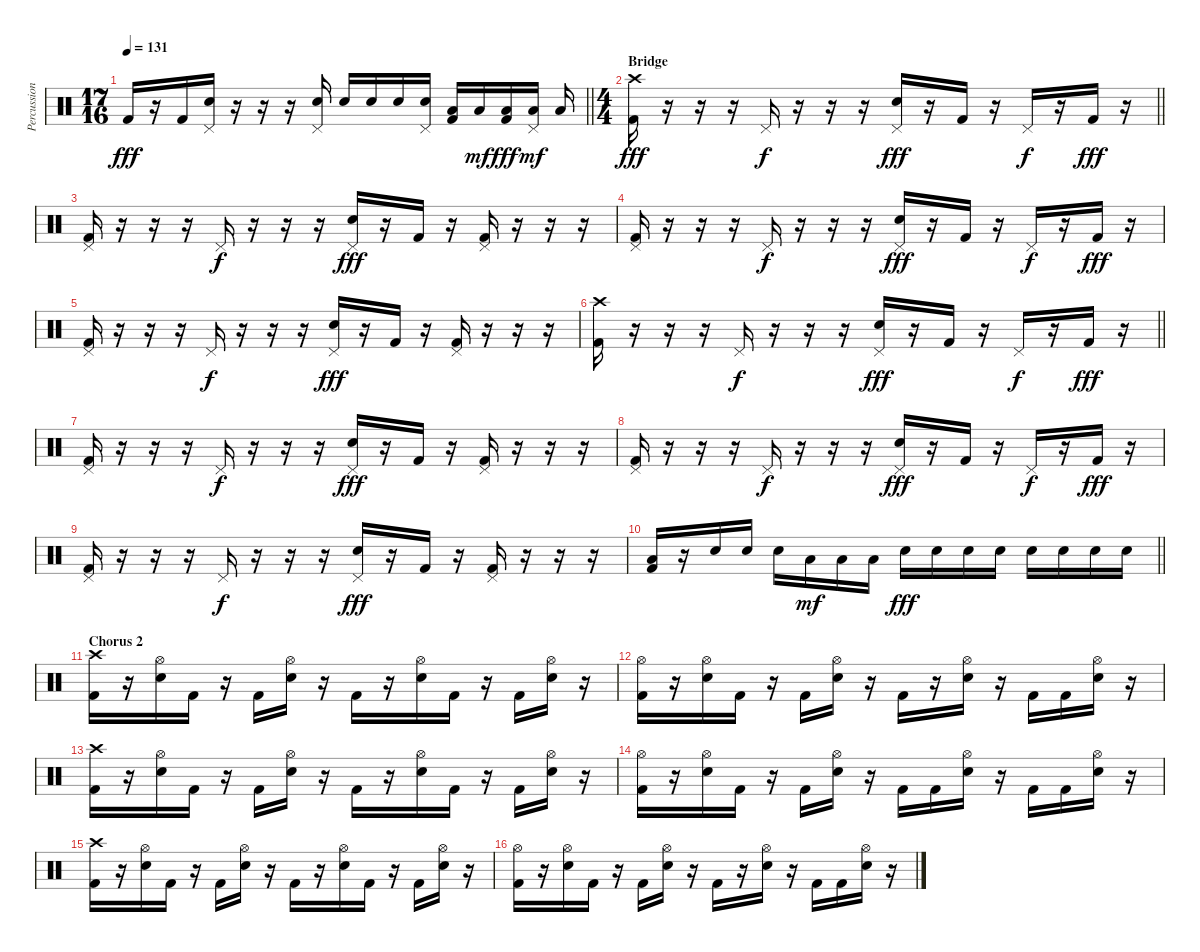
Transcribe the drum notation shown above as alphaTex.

\track ("Percussion" "Percussion") {instrument percussion}
\staff {score}
\articulation defaults
\ts (17 16)
\tempo 131
\clef neutral
\barLineRight lightlight
\ks c "Kick (hit) 2".16{dy fff}
r.16 "Kick (hit) 2".16 ("Pedal Hi-Hat (hit)" "Snare (hit) 2").16 r.16 r.16 r.16 ("Pedal Hi-Hat (hit)" "Snare (hit) 2").16 "Snare (hit) 2".16 "Snare (hit) 2".16 "Snare (hit) 2".16 ("Pedal Hi-Hat (hit)" "Snare (hit) 2").16 ("Low Tom (hit)" "Kick (hit) 2").16 "Low Tom (hit)".16{dy mf} ("Low Tom (hit)" "Kick (hit) 2").16{dy fff} ("Pedal Hi-Hat (hit)" "Low Tom (hit)").16{dy mf} "Low Tom (hit)".16 |
\ts (4 4)
\section ("" "Bridge")
\barLineRight lightlight
("Crash high (hit)" "Kick (hit) 2").16{dy fff} r.16 r.16 r.16 "Pedal Hi-Hat (hit)".16{dy f} r.16 r.16 r.16 ("Pedal Hi-Hat (hit)" "Snare (hit) 2").16{dy fff} r.16 "Kick (hit) 2".16 r.16 "Pedal Hi-Hat (hit)".16{dy f} r.16 "Kick (hit) 2".16{dy fff} r.16 |
("Pedal Hi-Hat (hit)" "Kick (hit) 2").16 r.16 r.16 r.16 "Pedal Hi-Hat (hit)".16{dy f} r.16 r.16 r.16 ("Pedal Hi-Hat (hit)" "Snare (hit) 2").16{dy fff} r.16 "Kick (hit) 2".16 r.16 ("Pedal Hi-Hat (hit)" "Kick (hit) 2").16 r.16 r.16 r.16 |
("Pedal Hi-Hat (hit)" "Kick (hit) 2").16 r.16 r.16 r.16 "Pedal Hi-Hat (hit)".16{dy f} r.16 r.16 r.16 ("Pedal Hi-Hat (hit)" "Snare (hit) 2").16{dy fff} r.16 "Kick (hit) 2".16 r.16 "Pedal Hi-Hat (hit)".16{dy f} r.16 "Kick (hit) 2".16{dy fff} r.16 |
("Pedal Hi-Hat (hit)" "Kick (hit) 2").16 r.16 r.16 r.16 "Pedal Hi-Hat (hit)".16{dy f} r.16 r.16 r.16 ("Pedal Hi-Hat (hit)" "Snare (hit) 2").16{dy fff} r.16 "Kick (hit) 2".16 r.16 ("Pedal Hi-Hat (hit)" "Kick (hit) 2").16 r.16 r.16 r.16 |
\barLineRight lightlight
("Crash high (hit)" "Kick (hit) 2").16 r.16 r.16 r.16 "Pedal Hi-Hat (hit)".16{dy f} r.16 r.16 r.16 ("Pedal Hi-Hat (hit)" "Snare (hit) 2").16{dy fff} r.16 "Kick (hit) 2".16 r.16 "Pedal Hi-Hat (hit)".16{dy f} r.16 "Kick (hit) 2".16{dy fff} r.16 |
("Pedal Hi-Hat (hit)" "Kick (hit) 2").16 r.16 r.16 r.16 "Pedal Hi-Hat (hit)".16{dy f} r.16 r.16 r.16 ("Pedal Hi-Hat (hit)" "Snare (hit) 2").16{dy fff} r.16 "Kick (hit) 2".16 r.16 ("Pedal Hi-Hat (hit)" "Kick (hit) 2").16 r.16 r.16 r.16 |
("Pedal Hi-Hat (hit)" "Kick (hit) 2").16 r.16 r.16 r.16 "Pedal Hi-Hat (hit)".16{dy f} r.16 r.16 r.16 ("Pedal Hi-Hat (hit)" "Snare (hit) 2").16{dy fff} r.16 "Kick (hit) 2".16 r.16 "Pedal Hi-Hat (hit)".16{dy f} r.16 "Kick (hit) 2".16{dy fff} r.16 |
("Pedal Hi-Hat (hit)" "Kick (hit) 2").16 r.16 r.16 r.16 "Pedal Hi-Hat (hit)".16{dy f} r.16 r.16 r.16 ("Pedal Hi-Hat (hit)" "Snare (hit) 2").16{dy fff} r.16 "Kick (hit) 2".16 r.16 ("Pedal Hi-Hat (hit)" "Kick (hit) 2").16 r.16 r.16 r.16 |
\barLineRight lightlight
("Low Tom (hit)" "Kick (hit) 2").16 r.16 "Snare (hit) 2".16 "Snare (hit) 2".16 "Snare (hit) 2".16 "Low Tom (hit)".16{dy mf} "Low Tom (hit)".16 "Low Tom (hit)".16 "Snare (hit) 2".16{dy fff} "Snare (hit) 2".16 "Snare (hit) 2".16 "Snare (hit) 2".16 "Snare (hit) 2".16 "Snare (hit) 2".16 "Snare (hit) 2".16 "Snare (hit) 2".16 |
\section ("" "Chorus 2")
("Crash high (hit)" "Kick (hit) 2").16 r.16 ("Hi-Hat (open)" "Snare (hit) 2").16 "Kick (hit) 2".16 r.16 "Kick (hit) 2".16 ("Hi-Hat (open)" "Snare (hit) 2").16 r.16 "Kick (hit) 2".16 r.16 ("Hi-Hat (open)" "Snare (hit) 2").16 "Kick (hit) 2".16 r.16 "Kick (hit) 2".16 ("Hi-Hat (open)" "Snare (hit) 2").16 r.16 |
("Hi-Hat (open)" "Kick (hit) 2").16 r.16 ("Hi-Hat (open)" "Snare (hit) 2").16 "Kick (hit) 2".16 r.16 "Kick (hit) 2".16 ("Hi-Hat (open)" "Snare (hit) 2").16 r.16 "Kick (hit) 2".16 r.16 ("Hi-Hat (open)" "Snare (hit) 2").16 r.16 "Kick (hit) 2".16 "Kick (hit) 2".16 ("Hi-Hat (open)" "Snare (hit) 2").16 r.16 |
("Crash high (hit)" "Kick (hit) 2").16 r.16 ("Hi-Hat (open)" "Snare (hit) 2").16 "Kick (hit) 2".16 r.16 "Kick (hit) 2".16 ("Hi-Hat (open)" "Snare (hit) 2").16 r.16 "Kick (hit) 2".16 r.16 ("Hi-Hat (open)" "Snare (hit) 2").16 "Kick (hit) 2".16 r.16 "Kick (hit) 2".16 ("Hi-Hat (open)" "Snare (hit) 2").16 r.16 |
("Hi-Hat (open)" "Kick (hit) 2").16 r.16 ("Hi-Hat (open)" "Snare (hit) 2").16 "Kick (hit) 2".16 r.16 "Kick (hit) 2".16 ("Hi-Hat (open)" "Snare (hit) 2").16 r.16 "Kick (hit) 2".16 "Kick (hit) 2".16 ("Hi-Hat (open)" "Snare (hit) 2").16 r.16 "Kick (hit) 2".16 "Kick (hit) 2".16 ("Hi-Hat (open)" "Snare (hit) 2").16 r.16 |
("Crash high (hit)" "Kick (hit) 2").16 r.16 ("Hi-Hat (open)" "Snare (hit) 2").16 "Kick (hit) 2".16 r.16 "Kick (hit) 2".16 ("Hi-Hat (open)" "Snare (hit) 2").16 r.16 "Kick (hit) 2".16 r.16 ("Hi-Hat (open)" "Snare (hit) 2").16 "Kick (hit) 2".16 r.16 "Kick (hit) 2".16 ("Hi-Hat (open)" "Snare (hit) 2").16 r.16 |
("Hi-Hat (open)" "Kick (hit) 2").16 r.16 ("Hi-Hat (open)" "Snare (hit) 2").16 "Kick (hit) 2".16 r.16 "Kick (hit) 2".16 ("Hi-Hat (open)" "Snare (hit) 2").16 r.16 "Kick (hit) 2".16 r.16 ("Hi-Hat (open)" "Snare (hit) 2").16 r.16 "Kick (hit) 2".16 "Kick (hit) 2".16 ("Hi-Hat (open)" "Snare (hit) 2").16 r.16
